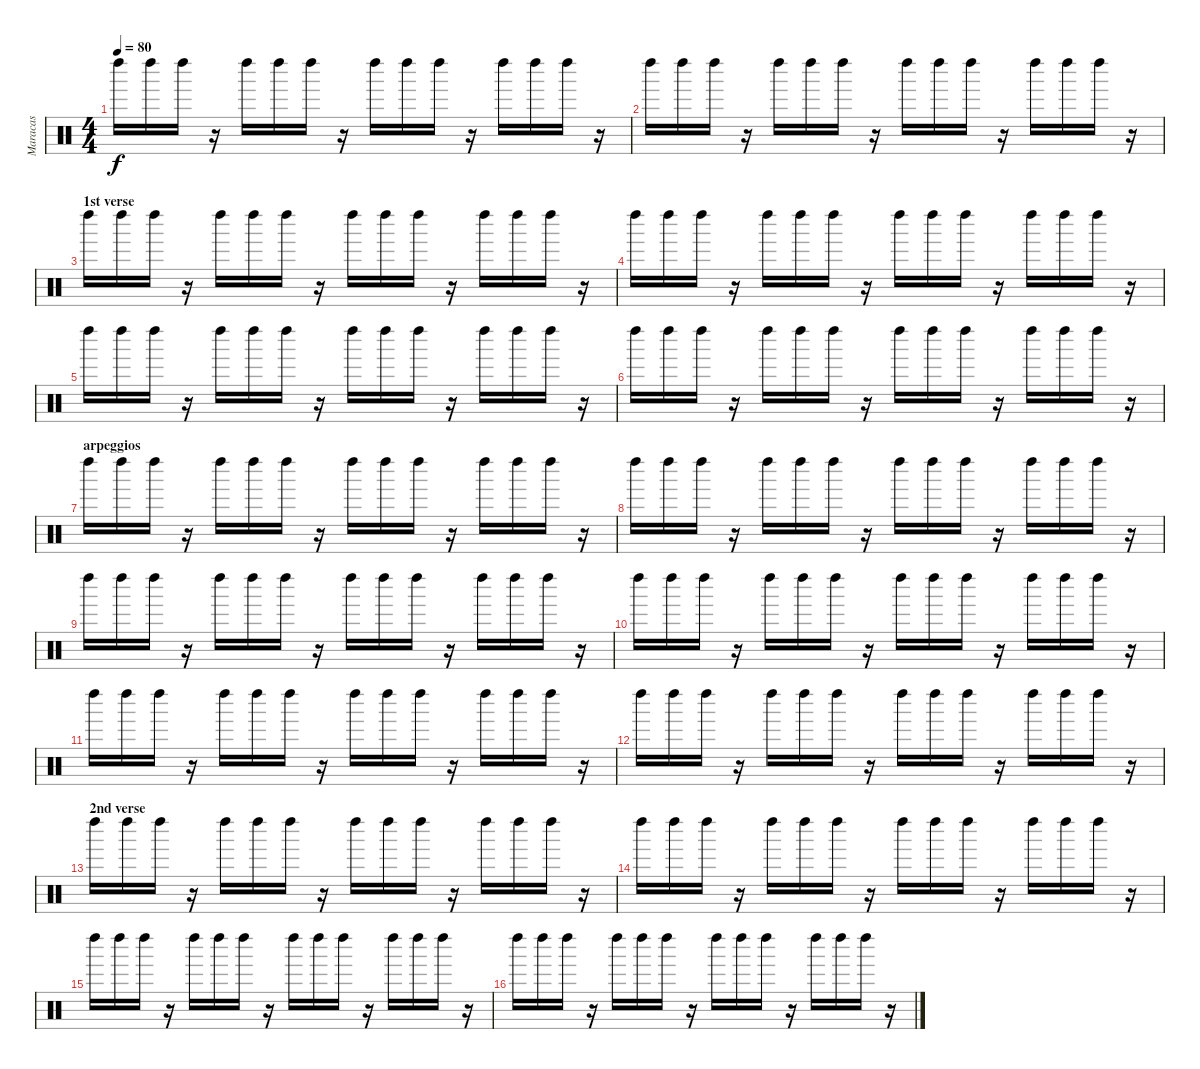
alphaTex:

\track ("Maracas" "Maracas") {instrument percussion}
\staff {score}
\articulation defaults
\ts (4 4)
\tempo 80
\clef neutral
\ks c "Left Maraca (hit)".16{dy f} "Left Maraca (hit)".16 "Left Maraca (hit)".16
r.16 "Left Maraca (hit)".16 "Left Maraca (hit)".16 "Left Maraca (hit)".16 r.16 "Left Maraca (hit)".16 "Left Maraca (hit)".16 "Left Maraca (hit)".16 r.16 "Left Maraca (hit)".16 "Left Maraca (hit)".16 "Left Maraca (hit)".16 r.16 |
"Left Maraca (hit)".16 "Left Maraca (hit)".16 "Left Maraca (hit)".16 r.16 "Left Maraca (hit)".16 "Left Maraca (hit)".16 "Left Maraca (hit)".16 r.16 "Left Maraca (hit)".16 "Left Maraca (hit)".16 "Left Maraca (hit)".16 r.16 "Left Maraca (hit)".16 "Left Maraca (hit)".16 "Left Maraca (hit)".16 r.16 |
\section ("" "1st verse")
"Left Maraca (hit)".16 "Left Maraca (hit)".16 "Left Maraca (hit)".16 r.16 "Left Maraca (hit)".16 "Left Maraca (hit)".16 "Left Maraca (hit)".16 r.16 "Left Maraca (hit)".16 "Left Maraca (hit)".16 "Left Maraca (hit)".16 r.16 "Left Maraca (hit)".16 "Left Maraca (hit)".16 "Left Maraca (hit)".16 r.16 |
"Left Maraca (hit)".16 "Left Maraca (hit)".16 "Left Maraca (hit)".16 r.16 "Left Maraca (hit)".16 "Left Maraca (hit)".16 "Left Maraca (hit)".16 r.16 "Left Maraca (hit)".16 "Left Maraca (hit)".16 "Left Maraca (hit)".16 r.16 "Left Maraca (hit)".16 "Left Maraca (hit)".16 "Left Maraca (hit)".16 r.16 |
"Left Maraca (hit)".16 "Left Maraca (hit)".16 "Left Maraca (hit)".16 r.16 "Left Maraca (hit)".16 "Left Maraca (hit)".16 "Left Maraca (hit)".16 r.16 "Left Maraca (hit)".16 "Left Maraca (hit)".16 "Left Maraca (hit)".16 r.16 "Left Maraca (hit)".16 "Left Maraca (hit)".16 "Left Maraca (hit)".16 r.16 |
"Left Maraca (hit)".16 "Left Maraca (hit)".16 "Left Maraca (hit)".16 r.16 "Left Maraca (hit)".16 "Left Maraca (hit)".16 "Left Maraca (hit)".16 r.16 "Left Maraca (hit)".16 "Left Maraca (hit)".16 "Left Maraca (hit)".16 r.16 "Left Maraca (hit)".16 "Left Maraca (hit)".16 "Left Maraca (hit)".16 r.16 |
\section ("" "arpeggios")
"Left Maraca (hit)".16 "Left Maraca (hit)".16 "Left Maraca (hit)".16 r.16 "Left Maraca (hit)".16 "Left Maraca (hit)".16 "Left Maraca (hit)".16 r.16 "Left Maraca (hit)".16 "Left Maraca (hit)".16 "Left Maraca (hit)".16 r.16 "Left Maraca (hit)".16 "Left Maraca (hit)".16 "Left Maraca (hit)".16 r.16 |
"Left Maraca (hit)".16 "Left Maraca (hit)".16 "Left Maraca (hit)".16 r.16 "Left Maraca (hit)".16 "Left Maraca (hit)".16 "Left Maraca (hit)".16 r.16 "Left Maraca (hit)".16 "Left Maraca (hit)".16 "Left Maraca (hit)".16 r.16 "Left Maraca (hit)".16 "Left Maraca (hit)".16 "Left Maraca (hit)".16 r.16 |
"Left Maraca (hit)".16 "Left Maraca (hit)".16 "Left Maraca (hit)".16 r.16 "Left Maraca (hit)".16 "Left Maraca (hit)".16 "Left Maraca (hit)".16 r.16 "Left Maraca (hit)".16 "Left Maraca (hit)".16 "Left Maraca (hit)".16 r.16 "Left Maraca (hit)".16 "Left Maraca (hit)".16 "Left Maraca (hit)".16 r.16 |
"Left Maraca (hit)".16 "Left Maraca (hit)".16 "Left Maraca (hit)".16 r.16 "Left Maraca (hit)".16 "Left Maraca (hit)".16 "Left Maraca (hit)".16 r.16 "Left Maraca (hit)".16 "Left Maraca (hit)".16 "Left Maraca (hit)".16 r.16 "Left Maraca (hit)".16 "Left Maraca (hit)".16 "Left Maraca (hit)".16 r.16 |
"Left Maraca (hit)".16 "Left Maraca (hit)".16 "Left Maraca (hit)".16 r.16 "Left Maraca (hit)".16 "Left Maraca (hit)".16 "Left Maraca (hit)".16 r.16 "Left Maraca (hit)".16 "Left Maraca (hit)".16 "Left Maraca (hit)".16 r.16 "Left Maraca (hit)".16 "Left Maraca (hit)".16 "Left Maraca (hit)".16 r.16 |
"Left Maraca (hit)".16 "Left Maraca (hit)".16 "Left Maraca (hit)".16 r.16 "Left Maraca (hit)".16 "Left Maraca (hit)".16 "Left Maraca (hit)".16 r.16 "Left Maraca (hit)".16 "Left Maraca (hit)".16 "Left Maraca (hit)".16 r.16 "Left Maraca (hit)".16 "Left Maraca (hit)".16 "Left Maraca (hit)".16 r.16 |
\section ("" "2nd verse")
"Left Maraca (hit)".16 "Left Maraca (hit)".16 "Left Maraca (hit)".16 r.16 "Left Maraca (hit)".16 "Left Maraca (hit)".16 "Left Maraca (hit)".16 r.16 "Left Maraca (hit)".16 "Left Maraca (hit)".16 "Left Maraca (hit)".16 r.16 "Left Maraca (hit)".16 "Left Maraca (hit)".16 "Left Maraca (hit)".16 r.16 |
"Left Maraca (hit)".16 "Left Maraca (hit)".16 "Left Maraca (hit)".16 r.16 "Left Maraca (hit)".16 "Left Maraca (hit)".16 "Left Maraca (hit)".16 r.16 "Left Maraca (hit)".16 "Left Maraca (hit)".16 "Left Maraca (hit)".16 r.16 "Left Maraca (hit)".16 "Left Maraca (hit)".16 "Left Maraca (hit)".16 r.16 |
"Left Maraca (hit)".16 "Left Maraca (hit)".16 "Left Maraca (hit)".16 r.16 "Left Maraca (hit)".16 "Left Maraca (hit)".16 "Left Maraca (hit)".16 r.16 "Left Maraca (hit)".16 "Left Maraca (hit)".16 "Left Maraca (hit)".16 r.16 "Left Maraca (hit)".16 "Left Maraca (hit)".16 "Left Maraca (hit)".16 r.16 |
"Left Maraca (hit)".16 "Left Maraca (hit)".16 "Left Maraca (hit)".16 r.16 "Left Maraca (hit)".16 "Left Maraca (hit)".16 "Left Maraca (hit)".16 r.16 "Left Maraca (hit)".16 "Left Maraca (hit)".16 "Left Maraca (hit)".16 r.16 "Left Maraca (hit)".16 "Left Maraca (hit)".16 "Left Maraca (hit)".16 r.16
